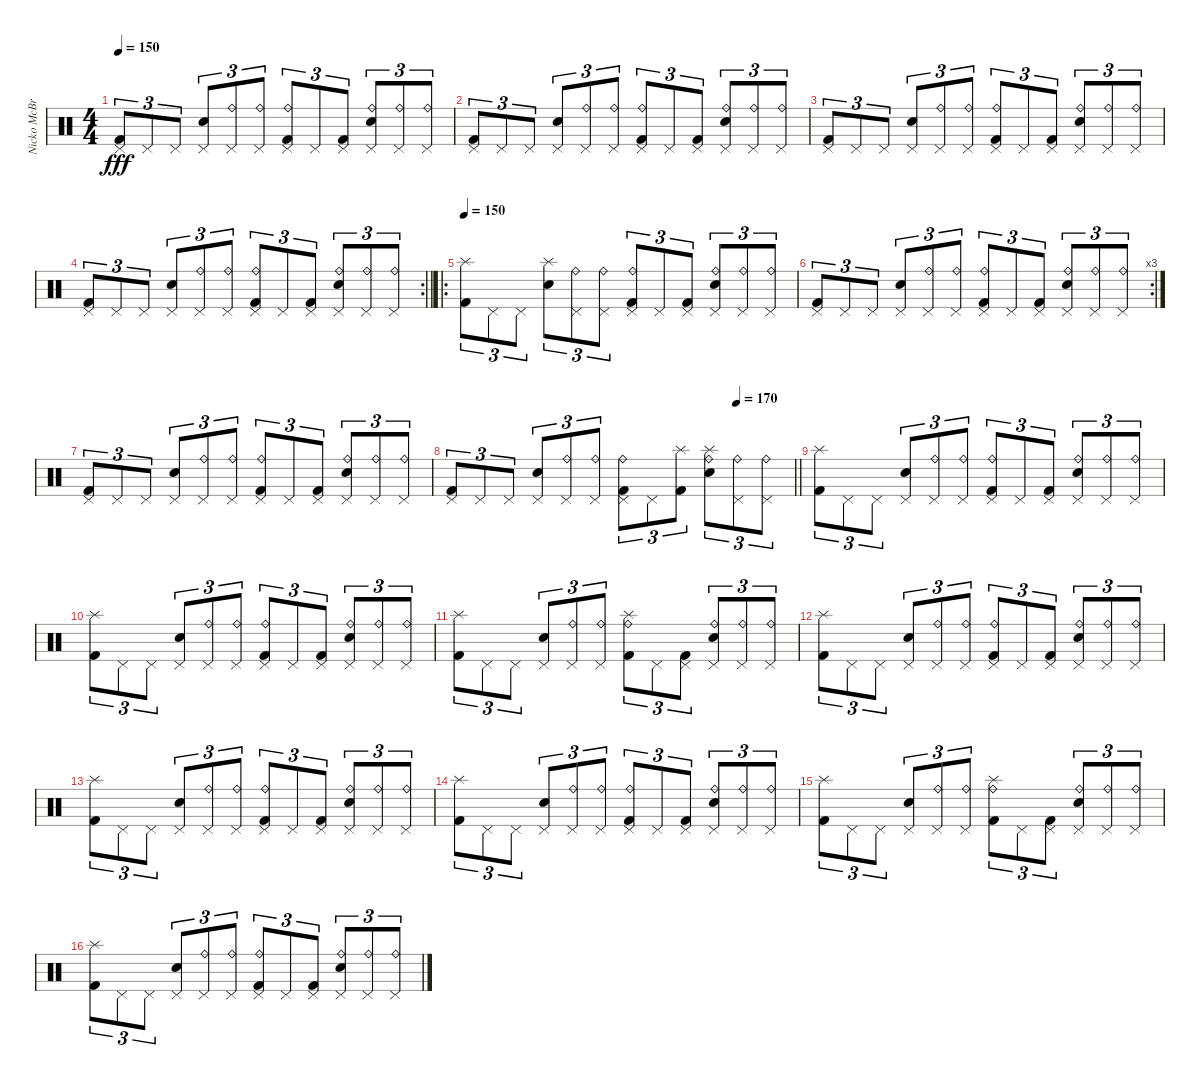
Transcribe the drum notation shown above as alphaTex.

\track ("Nicko McBrian (Drums)" "Nicko McBr") {instrument percussion}
\staff {score}
\articulation defaults
\ts (4 4)
\tempo 150
\clef neutral
\ks c
("Pedal Hi-Hat (hit)" "Kick (hit) 2").8{tu (3 2) dy fff} "Pedal Hi-Hat (hit)".8{tu (3 2)} "Pedal Hi-Hat (hit)".8{tu (3 2)} ("Pedal Hi-Hat (hit)" "Snare (hit) 2").8{tu (3 2)} ("Pedal Hi-Hat (hit)" "Ride (bell)").8{tu (3 2)} ("Pedal Hi-Hat (hit)" "Ride (bell)").8{tu (3 2)} ("Pedal Hi-Hat (hit)" "Kick (hit) 2" "Ride (bell)").8{tu (3 2)} "Pedal Hi-Hat (hit)".8{tu (3 2)} ("Pedal Hi-Hat (hit)" "Kick (hit) 2").8{tu (3 2)} ("Pedal Hi-Hat (hit)" "Snare (hit) 2" "Ride (bell)").8{tu (3 2)} ("Pedal Hi-Hat (hit)" "Ride (bell)").8{tu (3 2)} ("Pedal Hi-Hat (hit)" "Ride (bell)").8{tu (3 2)} |
("Pedal Hi-Hat (hit)" "Kick (hit) 2").8{tu (3 2)} "Pedal Hi-Hat (hit)".8{tu (3 2)} "Pedal Hi-Hat (hit)".8{tu (3 2)} ("Pedal Hi-Hat (hit)" "Snare (hit) 2").8{tu (3 2)} ("Pedal Hi-Hat (hit)" "Ride (bell)").8{tu (3 2)} ("Pedal Hi-Hat (hit)" "Ride (bell)").8{tu (3 2)} ("Pedal Hi-Hat (hit)" "Kick (hit) 2" "Ride (bell)").8{tu (3 2)} "Pedal Hi-Hat (hit)".8{tu (3 2)} ("Pedal Hi-Hat (hit)" "Kick (hit) 2").8{tu (3 2)} ("Pedal Hi-Hat (hit)" "Snare (hit) 2" "Ride (bell)").8{tu (3 2)} ("Pedal Hi-Hat (hit)" "Ride (bell)").8{tu (3 2)} ("Pedal Hi-Hat (hit)" "Ride (bell)").8{tu (3 2)} |
("Pedal Hi-Hat (hit)" "Kick (hit) 2").8{tu (3 2)} "Pedal Hi-Hat (hit)".8{tu (3 2)} "Pedal Hi-Hat (hit)".8{tu (3 2)} ("Pedal Hi-Hat (hit)" "Snare (hit) 2").8{tu (3 2)} ("Pedal Hi-Hat (hit)" "Ride (bell)").8{tu (3 2)} ("Pedal Hi-Hat (hit)" "Ride (bell)").8{tu (3 2)} ("Pedal Hi-Hat (hit)" "Kick (hit) 2" "Ride (bell)").8{tu (3 2)} "Pedal Hi-Hat (hit)".8{tu (3 2)} ("Pedal Hi-Hat (hit)" "Kick (hit) 2").8{tu (3 2)} ("Pedal Hi-Hat (hit)" "Snare (hit) 2" "Ride (bell)").8{tu (3 2)} ("Pedal Hi-Hat (hit)" "Ride (bell)").8{tu (3 2)} ("Pedal Hi-Hat (hit)" "Ride (bell)").8{tu (3 2)} |
\rc 2
\barLineRight lightlight
("Pedal Hi-Hat (hit)" "Kick (hit) 2").8{tu (3 2)} "Pedal Hi-Hat (hit)".8{tu (3 2)} "Pedal Hi-Hat (hit)".8{tu (3 2)} ("Pedal Hi-Hat (hit)" "Snare (hit) 2").8{tu (3 2)} ("Pedal Hi-Hat (hit)" "Ride (bell)").8{tu (3 2)} ("Pedal Hi-Hat (hit)" "Ride (bell)").8{tu (3 2)} ("Pedal Hi-Hat (hit)" "Kick (hit) 2" "Ride (bell)").8{tu (3 2)} "Pedal Hi-Hat (hit)".8{tu (3 2)} ("Pedal Hi-Hat (hit)" "Kick (hit) 2").8{tu (3 2)} ("Pedal Hi-Hat (hit)" "Snare (hit) 2" "Ride (bell)").8{tu (3 2)} ("Pedal Hi-Hat (hit)" "Ride (bell)").8{tu (3 2)} ("Pedal Hi-Hat (hit)" "Ride (bell)").8{tu (3 2)} |
\ro
\tempo 150
("Splash (hit)" "Kick (hit) 2").8{tu (3 2)} "Pedal Hi-Hat (hit)".8{tu (3 2)} "Pedal Hi-Hat (hit)".8{tu (3 2)} ("Splash (hit)" "Snare (hit) 2").8{tu (3 2)} ("Pedal Hi-Hat (hit)" "Ride (bell)").8{tu (3 2)} ("Pedal Hi-Hat (hit)" "Ride (bell)").8{tu (3 2)} ("Pedal Hi-Hat (hit)" "Kick (hit) 2" "Ride (bell)").8{tu (3 2)} "Pedal Hi-Hat (hit)".8{tu (3 2)} ("Pedal Hi-Hat (hit)" "Kick (hit) 2").8{tu (3 2)} ("Pedal Hi-Hat (hit)" "Snare (hit) 2" "Ride (bell)").8{tu (3 2)} ("Pedal Hi-Hat (hit)" "Ride (bell)").8{tu (3 2)} ("Pedal Hi-Hat (hit)" "Ride (bell)").8{tu (3 2)} |
\rc 3
("Pedal Hi-Hat (hit)" "Kick (hit) 2").8{tu (3 2)} "Pedal Hi-Hat (hit)".8{tu (3 2)} "Pedal Hi-Hat (hit)".8{tu (3 2)} ("Pedal Hi-Hat (hit)" "Snare (hit) 2").8{tu (3 2)} ("Pedal Hi-Hat (hit)" "Ride (bell)").8{tu (3 2)} ("Pedal Hi-Hat (hit)" "Ride (bell)").8{tu (3 2)} ("Pedal Hi-Hat (hit)" "Kick (hit) 2" "Ride (bell)").8{tu (3 2)} "Pedal Hi-Hat (hit)".8{tu (3 2)} ("Pedal Hi-Hat (hit)" "Kick (hit) 2").8{tu (3 2)} ("Pedal Hi-Hat (hit)" "Snare (hit) 2" "Ride (bell)").8{tu (3 2)} ("Pedal Hi-Hat (hit)" "Ride (bell)").8{tu (3 2)} ("Pedal Hi-Hat (hit)" "Ride (bell)").8{tu (3 2)} |
("Pedal Hi-Hat (hit)" "Kick (hit) 2").8{tu (3 2)} "Pedal Hi-Hat (hit)".8{tu (3 2)} "Pedal Hi-Hat (hit)".8{tu (3 2)} ("Pedal Hi-Hat (hit)" "Snare (hit) 2").8{tu (3 2)} ("Pedal Hi-Hat (hit)" "Ride (bell)").8{tu (3 2)} ("Pedal Hi-Hat (hit)" "Ride (bell)").8{tu (3 2)} ("Pedal Hi-Hat (hit)" "Kick (hit) 2" "Ride (bell)").8{tu (3 2)} "Pedal Hi-Hat (hit)".8{tu (3 2)} ("Pedal Hi-Hat (hit)" "Kick (hit) 2").8{tu (3 2)} ("Pedal Hi-Hat (hit)" "Snare (hit) 2" "Ride (bell)").8{tu (3 2)} ("Pedal Hi-Hat (hit)" "Ride (bell)").8{tu (3 2)} ("Pedal Hi-Hat (hit)" "Ride (bell)").8{tu (3 2)} |
\tempo (170 0.8333333333333334)
\barLineRight lightlight
("Pedal Hi-Hat (hit)" "Kick (hit) 2").8{tu (3 2)} "Pedal Hi-Hat (hit)".8{tu (3 2)} "Pedal Hi-Hat (hit)".8{tu (3 2)} ("Pedal Hi-Hat (hit)" "Snare (hit) 2").8{tu (3 2)} ("Pedal Hi-Hat (hit)" "Ride (bell)").8{tu (3 2)} ("Pedal Hi-Hat (hit)" "Ride (bell)").8{tu (3 2)} ("Pedal Hi-Hat (hit)" "Kick (hit) 2" "Ride (bell)").8{tu (3 2)} "Pedal Hi-Hat (hit)".8{tu (3 2)} ("Splash (hit)" "Kick (hit) 2").8{tu (3 2)} ("Splash (hit)" "Snare (hit) 2" "Ride (bell)").8{tu (3 2)} ("Pedal Hi-Hat (hit)" "Ride (bell)").8{tu (3 2)} ("Pedal Hi-Hat (hit)" "Ride (bell)").8{tu (3 2)} |
("Splash (hit)" "Kick (hit) 2").8{tu (3 2)} "Pedal Hi-Hat (hit)".8{tu (3 2)} "Pedal Hi-Hat (hit)".8{tu (3 2)} ("Pedal Hi-Hat (hit)" "Snare (hit) 2").8{tu (3 2)} ("Pedal Hi-Hat (hit)" "Ride (bell)").8{tu (3 2)} ("Pedal Hi-Hat (hit)" "Ride (bell)").8{tu (3 2)} ("Pedal Hi-Hat (hit)" "Kick (hit) 2" "Ride (bell)").8{tu (3 2)} "Pedal Hi-Hat (hit)".8{tu (3 2)} ("Pedal Hi-Hat (hit)" "Kick (hit) 2").8{tu (3 2)} ("Pedal Hi-Hat (hit)" "Snare (hit) 2" "Ride (bell)").8{tu (3 2)} ("Pedal Hi-Hat (hit)" "Ride (bell)").8{tu (3 2)} ("Pedal Hi-Hat (hit)" "Ride (bell)").8{tu (3 2)} |
("Splash (hit)" "Kick (hit) 2").8{tu (3 2)} "Pedal Hi-Hat (hit)".8{tu (3 2)} "Pedal Hi-Hat (hit)".8{tu (3 2)} ("Pedal Hi-Hat (hit)" "Snare (hit) 2").8{tu (3 2)} ("Pedal Hi-Hat (hit)" "Ride (bell)").8{tu (3 2)} ("Pedal Hi-Hat (hit)" "Ride (bell)").8{tu (3 2)} ("Pedal Hi-Hat (hit)" "Kick (hit) 2" "Ride (bell)").8{tu (3 2)} "Pedal Hi-Hat (hit)".8{tu (3 2)} ("Pedal Hi-Hat (hit)" "Kick (hit) 2").8{tu (3 2)} ("Pedal Hi-Hat (hit)" "Snare (hit) 2" "Ride (bell)").8{tu (3 2)} ("Pedal Hi-Hat (hit)" "Ride (bell)").8{tu (3 2)} ("Pedal Hi-Hat (hit)" "Ride (bell)").8{tu (3 2)} |
("Splash (hit)" "Kick (hit) 2").8{tu (3 2)} "Pedal Hi-Hat (hit)".8{tu (3 2)} "Pedal Hi-Hat (hit)".8{tu (3 2)} ("Pedal Hi-Hat (hit)" "Snare (hit) 2").8{tu (3 2)} ("Pedal Hi-Hat (hit)" "Ride (bell)").8{tu (3 2)} ("Pedal Hi-Hat (hit)" "Ride (bell)").8{tu (3 2)} ("Splash (hit)" "Kick (hit) 2" "Ride (bell)").8{tu (3 2)} "Pedal Hi-Hat (hit)".8{tu (3 2)} ("Pedal Hi-Hat (hit)" "Kick (hit) 2").8{tu (3 2)} ("Pedal Hi-Hat (hit)" "Snare (hit) 2" "Ride (bell)").8{tu (3 2)} ("Pedal Hi-Hat (hit)" "Ride (bell)").8{tu (3 2)} ("Pedal Hi-Hat (hit)" "Ride (bell)").8{tu (3 2)} |
("Splash (hit)" "Kick (hit) 2").8{tu (3 2)} "Pedal Hi-Hat (hit)".8{tu (3 2)} "Pedal Hi-Hat (hit)".8{tu (3 2)} ("Pedal Hi-Hat (hit)" "Snare (hit) 2").8{tu (3 2)} ("Pedal Hi-Hat (hit)" "Ride (bell)").8{tu (3 2)} ("Pedal Hi-Hat (hit)" "Ride (bell)").8{tu (3 2)} ("Pedal Hi-Hat (hit)" "Kick (hit) 2" "Ride (bell)").8{tu (3 2)} "Pedal Hi-Hat (hit)".8{tu (3 2)} ("Pedal Hi-Hat (hit)" "Kick (hit) 2").8{tu (3 2)} ("Pedal Hi-Hat (hit)" "Snare (hit) 2" "Ride (bell)").8{tu (3 2)} ("Pedal Hi-Hat (hit)" "Ride (bell)").8{tu (3 2)} ("Pedal Hi-Hat (hit)" "Ride (bell)").8{tu (3 2)} |
("Splash (hit)" "Kick (hit) 2").8{tu (3 2)} "Pedal Hi-Hat (hit)".8{tu (3 2)} "Pedal Hi-Hat (hit)".8{tu (3 2)} ("Pedal Hi-Hat (hit)" "Snare (hit) 2").8{tu (3 2)} ("Pedal Hi-Hat (hit)" "Ride (bell)").8{tu (3 2)} ("Pedal Hi-Hat (hit)" "Ride (bell)").8{tu (3 2)} ("Pedal Hi-Hat (hit)" "Kick (hit) 2" "Ride (bell)").8{tu (3 2)} "Pedal Hi-Hat (hit)".8{tu (3 2)} ("Pedal Hi-Hat (hit)" "Kick (hit) 2").8{tu (3 2)} ("Pedal Hi-Hat (hit)" "Snare (hit) 2" "Ride (bell)").8{tu (3 2)} ("Pedal Hi-Hat (hit)" "Ride (bell)").8{tu (3 2)} ("Pedal Hi-Hat (hit)" "Ride (bell)").8{tu (3 2)} |
("Splash (hit)" "Kick (hit) 2").8{tu (3 2)} "Pedal Hi-Hat (hit)".8{tu (3 2)} "Pedal Hi-Hat (hit)".8{tu (3 2)} ("Pedal Hi-Hat (hit)" "Snare (hit) 2").8{tu (3 2)} ("Pedal Hi-Hat (hit)" "Ride (bell)").8{tu (3 2)} ("Pedal Hi-Hat (hit)" "Ride (bell)").8{tu (3 2)} ("Pedal Hi-Hat (hit)" "Kick (hit) 2" "Ride (bell)").8{tu (3 2)} "Pedal Hi-Hat (hit)".8{tu (3 2)} ("Pedal Hi-Hat (hit)" "Kick (hit) 2").8{tu (3 2)} ("Pedal Hi-Hat (hit)" "Snare (hit) 2" "Ride (bell)").8{tu (3 2)} ("Pedal Hi-Hat (hit)" "Ride (bell)").8{tu (3 2)} ("Pedal Hi-Hat (hit)" "Ride (bell)").8{tu (3 2)} |
("Splash (hit)" "Kick (hit) 2").8{tu (3 2)} "Pedal Hi-Hat (hit)".8{tu (3 2)} "Pedal Hi-Hat (hit)".8{tu (3 2)} ("Pedal Hi-Hat (hit)" "Snare (hit) 2").8{tu (3 2)} ("Pedal Hi-Hat (hit)" "Ride (bell)").8{tu (3 2)} ("Pedal Hi-Hat (hit)" "Ride (bell)").8{tu (3 2)} ("Splash (hit)" "Kick (hit) 2" "Ride (bell)").8{tu (3 2)} "Pedal Hi-Hat (hit)".8{tu (3 2)} ("Pedal Hi-Hat (hit)" "Kick (hit) 2").8{tu (3 2)} ("Pedal Hi-Hat (hit)" "Snare (hit) 2" "Ride (bell)").8{tu (3 2)} ("Pedal Hi-Hat (hit)" "Ride (bell)").8{tu (3 2)} ("Pedal Hi-Hat (hit)" "Ride (bell)").8{tu (3 2)} |
("Splash (hit)" "Kick (hit) 2").8{tu (3 2)} "Pedal Hi-Hat (hit)".8{tu (3 2)} "Pedal Hi-Hat (hit)".8{tu (3 2)} ("Pedal Hi-Hat (hit)" "Snare (hit) 2").8{tu (3 2)} ("Pedal Hi-Hat (hit)" "Ride (bell)").8{tu (3 2)} ("Pedal Hi-Hat (hit)" "Ride (bell)").8{tu (3 2)} ("Pedal Hi-Hat (hit)" "Kick (hit) 2" "Ride (bell)").8{tu (3 2)} "Pedal Hi-Hat (hit)".8{tu (3 2)} ("Pedal Hi-Hat (hit)" "Kick (hit) 2").8{tu (3 2)} ("Pedal Hi-Hat (hit)" "Snare (hit) 2" "Ride (bell)").8{tu (3 2)} ("Pedal Hi-Hat (hit)" "Ride (bell)").8{tu (3 2)} ("Pedal Hi-Hat (hit)" "Ride (bell)").8{tu (3 2)}
